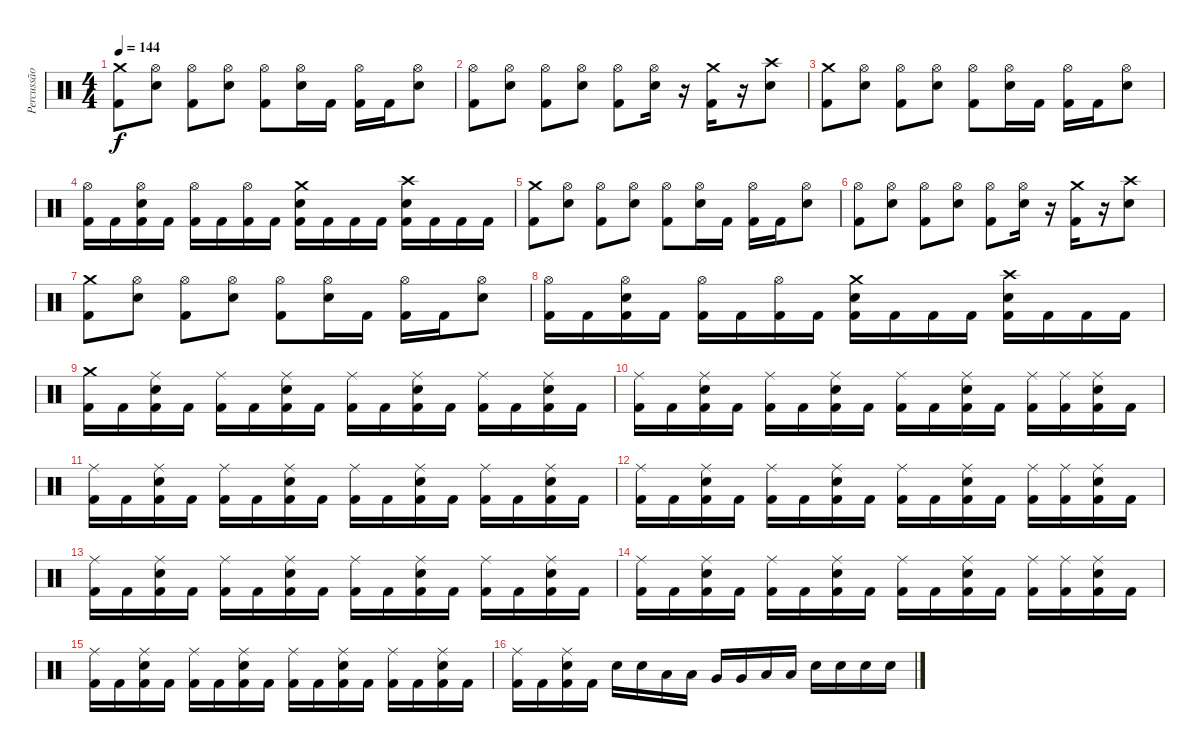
\track ("Percussão" "Percussão") {instrument percussion}
\staff {score}
\articulation defaults
\ts (4 4)
\tempo 144
\clef neutral
\ks c
("Crash medium (hit)" "Kick (hit) 2").8{dy f} ("Hi-Hat (open)" "Electric Snare (hit)").8 ("Hi-Hat (open)" "Kick (hit) 2").8 ("Hi-Hat (open)" "Electric Snare (hit)").8 ("Hi-Hat (open)" "Kick (hit) 2").8 ("Hi-Hat (open)" "Electric Snare (hit)").16 "Kick (hit) 2".16 ("Hi-Hat (open)" "Kick (hit) 2").16 "Kick (hit) 2".16 ("Hi-Hat (open)" "Electric Snare (hit)").8 |
("Hi-Hat (open)" "Kick (hit) 2").8 ("Hi-Hat (open)" "Electric Snare (hit)").8 ("Hi-Hat (open)" "Kick (hit) 2").8 ("Hi-Hat (open)" "Electric Snare (hit)").8 ("Hi-Hat (open)" "Kick (hit) 2").8 ("Hi-Hat (open)" "Electric Snare (hit)").16 r.16 ("Crash medium (hit)" "Kick (hit) 2").16 r.16 ("Crash high (hit)" "Electric Snare (hit)").8 |
("Crash medium (hit)" "Kick (hit) 2").8 ("Hi-Hat (open)" "Electric Snare (hit)").8 ("Hi-Hat (open)" "Kick (hit) 2").8 ("Hi-Hat (open)" "Electric Snare (hit)").8 ("Hi-Hat (open)" "Kick (hit) 2").8 ("Hi-Hat (open)" "Electric Snare (hit)").16 "Kick (hit) 2".16 ("Hi-Hat (open)" "Kick (hit) 2").16 "Kick (hit) 2".16 ("Hi-Hat (open)" "Electric Snare (hit)").8 |
("Hi-Hat (open)" "Kick (hit) 2").16 "Kick (hit) 2".16 ("Hi-Hat (open)" "Electric Snare (hit)" "Kick (hit) 2").16 "Kick (hit) 2".16 ("Hi-Hat (open)" "Kick (hit) 2").16 "Kick (hit) 2".16 ("Hi-Hat (open)" "Kick (hit) 2").16 "Kick (hit) 2".16 ("Crash medium (hit)" "Electric Snare (hit)" "Kick (hit) 2").16 "Kick (hit) 2".16 "Kick (hit) 2".16 "Kick (hit) 2".16 ("Crash high (hit)" "Electric Snare (hit)" "Kick (hit) 2").16 "Kick (hit) 2".16 "Kick (hit) 2".16 "Kick (hit) 2".16 |
("Crash medium (hit)" "Kick (hit) 2").8 ("Hi-Hat (open)" "Electric Snare (hit)").8 ("Hi-Hat (open)" "Kick (hit) 2").8 ("Hi-Hat (open)" "Electric Snare (hit)").8 ("Hi-Hat (open)" "Kick (hit) 2").8 ("Hi-Hat (open)" "Electric Snare (hit)").16 "Kick (hit) 2".16 ("Hi-Hat (open)" "Kick (hit) 2").16 "Kick (hit) 2".16 ("Hi-Hat (open)" "Electric Snare (hit)").8 |
("Hi-Hat (open)" "Kick (hit) 2").8 ("Hi-Hat (open)" "Electric Snare (hit)").8 ("Hi-Hat (open)" "Kick (hit) 2").8 ("Hi-Hat (open)" "Electric Snare (hit)").8 ("Hi-Hat (open)" "Kick (hit) 2").8 ("Hi-Hat (open)" "Electric Snare (hit)").16 r.16 ("Crash medium (hit)" "Kick (hit) 2").16 r.16 ("Crash high (hit)" "Electric Snare (hit)").8 |
("Crash medium (hit)" "Kick (hit) 2").8 ("Hi-Hat (open)" "Electric Snare (hit)").8 ("Hi-Hat (open)" "Kick (hit) 2").8 ("Hi-Hat (open)" "Electric Snare (hit)").8 ("Hi-Hat (open)" "Kick (hit) 2").8 ("Hi-Hat (open)" "Electric Snare (hit)").16 "Kick (hit) 2".16 ("Hi-Hat (open)" "Kick (hit) 2").16 "Kick (hit) 2".16 ("Hi-Hat (open)" "Electric Snare (hit)").8 |
("Hi-Hat (open)" "Kick (hit) 2").16 "Kick (hit) 2".16 ("Hi-Hat (open)" "Electric Snare (hit)" "Kick (hit) 2").16 "Kick (hit) 2".16 ("Hi-Hat (open)" "Kick (hit) 2").16 "Kick (hit) 2".16 ("Hi-Hat (open)" "Kick (hit) 2").16 "Kick (hit) 2".16 ("Crash medium (hit)" "Electric Snare (hit)" "Kick (hit) 2").16 "Kick (hit) 2".16 "Kick (hit) 2".16 "Kick (hit) 2".16 ("Crash high (hit)" "Electric Snare (hit)" "Kick (hit) 2").16 "Kick (hit) 2".16 "Kick (hit) 2".16 "Kick (hit) 2".16 |
("Crash medium (hit)" "Kick (hit) 2").16 "Kick (hit) 2".16 ("Ride (middle)" "Electric Snare (hit)" "Kick (hit) 2").16 "Kick (hit) 2".16 ("Ride (middle)" "Kick (hit) 2").16 "Kick (hit) 2".16 ("Ride (middle)" "Electric Snare (hit)" "Kick (hit) 2").16 "Kick (hit) 2".16 ("Ride (middle)" "Kick (hit) 2").16 "Kick (hit) 2".16 ("Ride (middle)" "Electric Snare (hit)" "Kick (hit) 2").16 "Kick (hit) 2".16 ("Ride (middle)" "Kick (hit) 2").16 "Kick (hit) 2".16 ("Ride (middle)" "Electric Snare (hit)" "Kick (hit) 2").16 "Kick (hit) 2".16 |
("Ride (middle)" "Kick (hit) 2").16 "Kick (hit) 2".16 ("Ride (middle)" "Electric Snare (hit)" "Kick (hit) 2").16 "Kick (hit) 2".16 ("Ride (middle)" "Kick (hit) 2").16 "Kick (hit) 2".16 ("Ride (middle)" "Electric Snare (hit)" "Kick (hit) 2").16 "Kick (hit) 2".16 ("Ride (middle)" "Kick (hit) 2").16 "Kick (hit) 2".16 ("Ride (middle)" "Electric Snare (hit)" "Kick (hit) 2").16 "Kick (hit) 2".16 ("Ride (middle)" "Kick (hit) 2").16 ("Ride (middle)" "Kick (hit) 2").16 ("Ride (middle)" "Electric Snare (hit)" "Kick (hit) 2").16 "Kick (hit) 2".16 |
("Ride (middle)" "Kick (hit) 2").16 "Kick (hit) 2".16 ("Ride (middle)" "Electric Snare (hit)" "Kick (hit) 2").16 "Kick (hit) 2".16 ("Ride (middle)" "Kick (hit) 2").16 "Kick (hit) 2".16 ("Ride (middle)" "Electric Snare (hit)" "Kick (hit) 2").16 "Kick (hit) 2".16 ("Ride (middle)" "Kick (hit) 2").16 "Kick (hit) 2".16 ("Ride (middle)" "Electric Snare (hit)" "Kick (hit) 2").16 "Kick (hit) 2".16 ("Ride (middle)" "Kick (hit) 2").16 "Kick (hit) 2".16 ("Ride (middle)" "Electric Snare (hit)" "Kick (hit) 2").16 "Kick (hit) 2".16 |
("Ride (middle)" "Kick (hit) 2").16 "Kick (hit) 2".16 ("Ride (middle)" "Electric Snare (hit)" "Kick (hit) 2").16 "Kick (hit) 2".16 ("Ride (middle)" "Kick (hit) 2").16 "Kick (hit) 2".16 ("Ride (middle)" "Electric Snare (hit)" "Kick (hit) 2").16 "Kick (hit) 2".16 ("Ride (middle)" "Kick (hit) 2").16 "Kick (hit) 2".16 ("Ride (middle)" "Electric Snare (hit)" "Kick (hit) 2").16 "Kick (hit) 2".16 ("Ride (middle)" "Kick (hit) 2").16 ("Ride (middle)" "Kick (hit) 2").16 ("Ride (middle)" "Electric Snare (hit)" "Kick (hit) 2").16 "Kick (hit) 2".16 |
("Ride (middle)" "Kick (hit) 2").16 "Kick (hit) 2".16 ("Ride (middle)" "Electric Snare (hit)" "Kick (hit) 2").16 "Kick (hit) 2".16 ("Ride (middle)" "Kick (hit) 2").16 "Kick (hit) 2".16 ("Ride (middle)" "Electric Snare (hit)" "Kick (hit) 2").16 "Kick (hit) 2".16 ("Ride (middle)" "Kick (hit) 2").16 "Kick (hit) 2".16 ("Ride (middle)" "Electric Snare (hit)" "Kick (hit) 2").16 "Kick (hit) 2".16 ("Ride (middle)" "Kick (hit) 2").16 "Kick (hit) 2".16 ("Ride (middle)" "Electric Snare (hit)" "Kick (hit) 2").16 "Kick (hit) 2".16 |
("Ride (middle)" "Kick (hit) 2").16 "Kick (hit) 2".16 ("Ride (middle)" "Electric Snare (hit)" "Kick (hit) 2").16 "Kick (hit) 2".16 ("Ride (middle)" "Kick (hit) 2").16 "Kick (hit) 2".16 ("Ride (middle)" "Electric Snare (hit)" "Kick (hit) 2").16 "Kick (hit) 2".16 ("Ride (middle)" "Kick (hit) 2").16 "Kick (hit) 2".16 ("Ride (middle)" "Electric Snare (hit)" "Kick (hit) 2").16 "Kick (hit) 2".16 ("Ride (middle)" "Kick (hit) 2").16 ("Ride (middle)" "Kick (hit) 2").16 ("Ride (middle)" "Electric Snare (hit)" "Kick (hit) 2").16 "Kick (hit) 2".16 |
("Ride (middle)" "Kick (hit) 2").16 "Kick (hit) 2".16 ("Ride (middle)" "Electric Snare (hit)" "Kick (hit) 2").16 "Kick (hit) 2".16 ("Ride (middle)" "Kick (hit) 2").16 "Kick (hit) 2".16 ("Ride (middle)" "Electric Snare (hit)" "Kick (hit) 2").16 "Kick (hit) 2".16 ("Ride (middle)" "Kick (hit) 2").16 "Kick (hit) 2".16 ("Ride (middle)" "Electric Snare (hit)" "Kick (hit) 2").16 "Kick (hit) 2".16 ("Ride (middle)" "Kick (hit) 2").16 "Kick (hit) 2".16 ("Ride (middle)" "Electric Snare (hit)" "Kick (hit) 2").16 "Kick (hit) 2".16 |
("Ride (middle)" "Kick (hit) 2").16 "Kick (hit) 2".16 ("Ride (middle)" "Electric Snare (hit)" "Kick (hit) 2").16 "Kick (hit) 2".16 "Electric Snare (hit)".16 "Electric Snare (hit)".16 "Low Tom (hit)".16 "Low Tom (hit)".16 "Very Low Tom (hit)".16 "Very Low Tom (hit)".16 "Low Floor Tom (hit)".16 "Low Floor Tom (hit)".16 "Electric Snare (hit)".16 "Electric Snare (hit)".16 "Electric Snare (hit)".16 "Electric Snare (hit)".16
